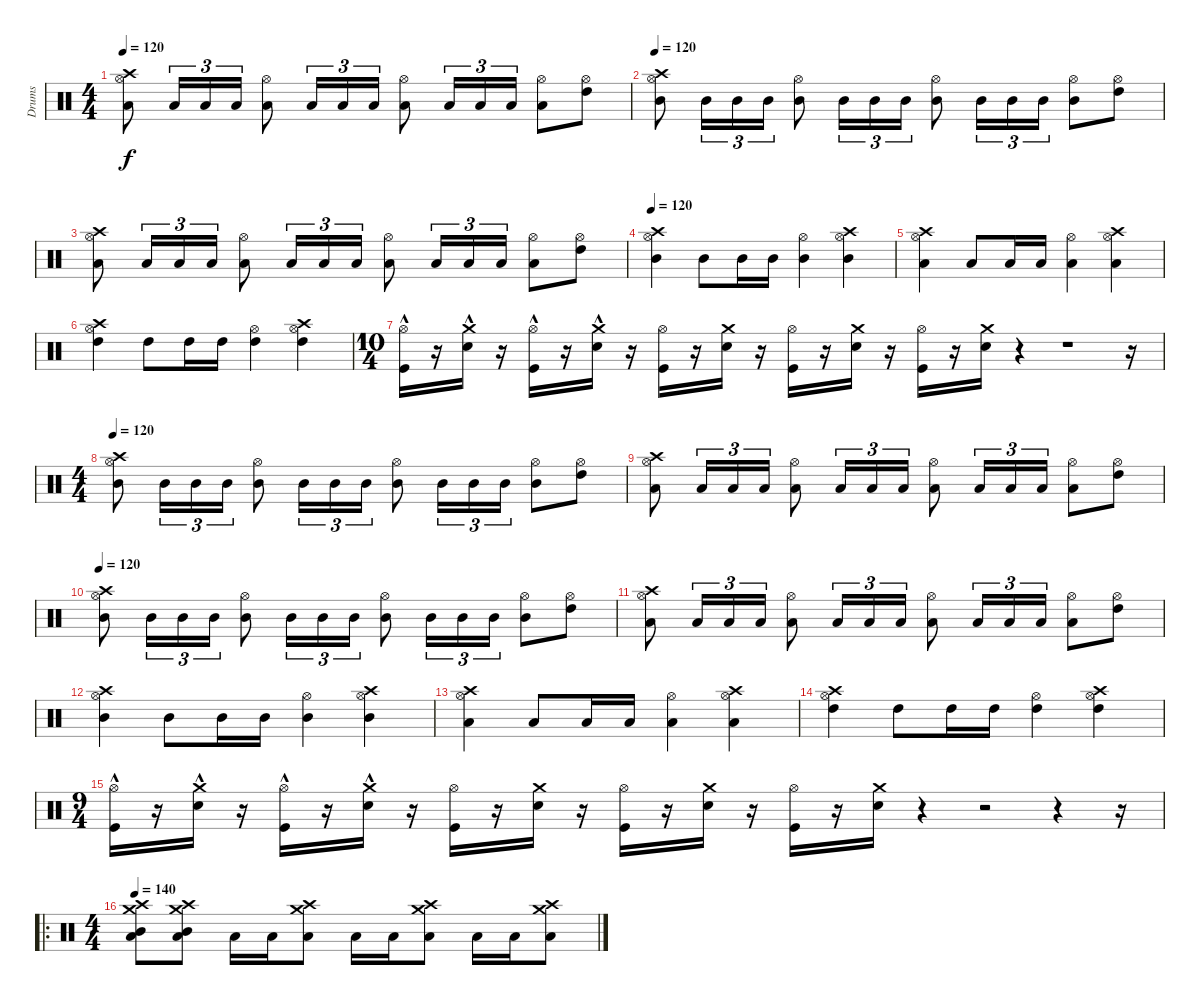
\track ("Drums" "Drums") {instrument percussion}
\staff {score}
\articulation defaults
\ts (4 4)
\tempo 120
\clef neutral
\ks c
("Hi-Hat (open)" "Low Tom (hit)" "Crash high (hit)").8{dy f} "Low Tom (hit)".16{tu (3 2)} "Low Tom (hit)".16{tu (3 2)} "Low Tom (hit)".16{tu (3 2)} ("Hi-Hat (open)" "Low Tom (hit)").8 "Low Tom (hit)".16{tu (3 2)} "Low Tom (hit)".16{tu (3 2)} "Low Tom (hit)".16{tu (3 2)} ("Hi-Hat (open)" "Low Tom (hit)").8 "Low Tom (hit)".16{tu (3 2)} "Low Tom (hit)".16{tu (3 2)} "Low Tom (hit)".16{tu (3 2)} ("Hi-Hat (open)" "Low Tom (hit)").8 ("Hi-Hat (open)" "High Tom (hit)").8 |
\tempo 120
("Hi-Hat (open)" "Mid Tom (hit)" "Crash high (hit)").8 "Mid Tom (hit)".16{tu (3 2)} "Mid Tom (hit)".16{tu (3 2)} "Mid Tom (hit)".16{tu (3 2)} ("Hi-Hat (open)" "Mid Tom (hit)").8 "Mid Tom (hit)".16{tu (3 2)} "Mid Tom (hit)".16{tu (3 2)} "Mid Tom (hit)".16{tu (3 2)} ("Hi-Hat (open)" "Mid Tom (hit)").8 "Mid Tom (hit)".16{tu (3 2)} "Mid Tom (hit)".16{tu (3 2)} "Mid Tom (hit)".16{tu (3 2)} ("Hi-Hat (open)" "Mid Tom (hit)").8 ("Hi-Hat (open)" "High Tom (hit)").8 |
("Hi-Hat (open)" "Low Tom (hit)" "Crash high (hit)").8 "Low Tom (hit)".16{tu (3 2)} "Low Tom (hit)".16{tu (3 2)} "Low Tom (hit)".16{tu (3 2)} ("Hi-Hat (open)" "Low Tom (hit)").8 "Low Tom (hit)".16{tu (3 2)} "Low Tom (hit)".16{tu (3 2)} "Low Tom (hit)".16{tu (3 2)} ("Hi-Hat (open)" "Low Tom (hit)").8 "Low Tom (hit)".16{tu (3 2)} "Low Tom (hit)".16{tu (3 2)} "Low Tom (hit)".16{tu (3 2)} ("Hi-Hat (open)" "Low Tom (hit)").8 ("Hi-Hat (open)" "High Tom (hit)").8 |
\tempo 120
("Hi-Hat (open)" "Mid Tom (hit)" "Crash high (hit)").4 "Mid Tom (hit)".8 "Mid Tom (hit)".16 "Mid Tom (hit)".16 ("Hi-Hat (open)" "Mid Tom (hit)").4 ("Hi-Hat (open)" "Mid Tom (hit)" "Crash high (hit)").4 |
("Hi-Hat (open)" "Low Tom (hit)" "Crash high (hit)").4 "Low Tom (hit)".8 "Low Tom (hit)".16 "Low Tom (hit)".16 ("Hi-Hat (open)" "Low Tom (hit)").4 ("Hi-Hat (open)" "Low Tom (hit)" "Crash high (hit)").4 |
("Hi-Hat (open)" "High Tom (hit)" "Crash high (hit)").4 "High Tom (hit)".8 "High Tom (hit)".16 "High Tom (hit)".16 ("Hi-Hat (open)" "High Tom (hit)").4 ("Hi-Hat (open)" "High Tom (hit)" "Crash high (hit)").4 |
\ts (10 4)
("Hi-Hat (open)" "Kick (hit)"{hac}).16 r.16 ("Crash medium (hit)" "Snare (hit) 2"{hac}).16 r.16 ("Hi-Hat (open)" "Kick (hit)"{hac}).16 r.16 ("Crash medium (hit)" "Snare (hit) 2"{hac}).16 r.16 ("Hi-Hat (open)" "Kick (hit)").16 r.16 ("Crash medium (hit)" "Snare (hit) 2").16 r.16 ("Hi-Hat (open)" "Kick (hit)").16 r.16 ("Crash medium (hit)" "Snare (hit) 2").16 r.16 ("Hi-Hat (open)" "Kick (hit)").16 r.16 ("Crash medium (hit)" "Snare (hit) 2").16 r.4 r.1 r.16 |
\ts (4 4)
\tempo 120
("Hi-Hat (open)" "Mid Tom (hit)" "Crash high (hit)").8 "Mid Tom (hit)".16{tu (3 2)} "Mid Tom (hit)".16{tu (3 2)} "Mid Tom (hit)".16{tu (3 2)} ("Hi-Hat (open)" "Mid Tom (hit)").8 "Mid Tom (hit)".16{tu (3 2)} "Mid Tom (hit)".16{tu (3 2)} "Mid Tom (hit)".16{tu (3 2)} ("Hi-Hat (open)" "Mid Tom (hit)").8 "Mid Tom (hit)".16{tu (3 2)} "Mid Tom (hit)".16{tu (3 2)} "Mid Tom (hit)".16{tu (3 2)} ("Hi-Hat (open)" "Mid Tom (hit)").8 ("Hi-Hat (open)" "High Tom (hit)").8 |
("Hi-Hat (open)" "Low Tom (hit)" "Crash high (hit)").8 "Low Tom (hit)".16{tu (3 2)} "Low Tom (hit)".16{tu (3 2)} "Low Tom (hit)".16{tu (3 2)} ("Hi-Hat (open)" "Low Tom (hit)").8 "Low Tom (hit)".16{tu (3 2)} "Low Tom (hit)".16{tu (3 2)} "Low Tom (hit)".16{tu (3 2)} ("Hi-Hat (open)" "Low Tom (hit)").8 "Low Tom (hit)".16{tu (3 2)} "Low Tom (hit)".16{tu (3 2)} "Low Tom (hit)".16{tu (3 2)} ("Hi-Hat (open)" "Low Tom (hit)").8 ("Hi-Hat (open)" "High Tom (hit)").8 |
\tempo 120
("Hi-Hat (open)" "Mid Tom (hit)" "Crash high (hit)").8 "Mid Tom (hit)".16{tu (3 2)} "Mid Tom (hit)".16{tu (3 2)} "Mid Tom (hit)".16{tu (3 2)} ("Hi-Hat (open)" "Mid Tom (hit)").8 "Mid Tom (hit)".16{tu (3 2)} "Mid Tom (hit)".16{tu (3 2)} "Mid Tom (hit)".16{tu (3 2)} ("Hi-Hat (open)" "Mid Tom (hit)").8 "Mid Tom (hit)".16{tu (3 2)} "Mid Tom (hit)".16{tu (3 2)} "Mid Tom (hit)".16{tu (3 2)} ("Hi-Hat (open)" "Mid Tom (hit)").8 ("Hi-Hat (open)" "High Tom (hit)").8 |
("Hi-Hat (open)" "Low Tom (hit)" "Crash high (hit)").8 "Low Tom (hit)".16{tu (3 2)} "Low Tom (hit)".16{tu (3 2)} "Low Tom (hit)".16{tu (3 2)} ("Hi-Hat (open)" "Low Tom (hit)").8 "Low Tom (hit)".16{tu (3 2)} "Low Tom (hit)".16{tu (3 2)} "Low Tom (hit)".16{tu (3 2)} ("Hi-Hat (open)" "Low Tom (hit)").8 "Low Tom (hit)".16{tu (3 2)} "Low Tom (hit)".16{tu (3 2)} "Low Tom (hit)".16{tu (3 2)} ("Hi-Hat (open)" "Low Tom (hit)").8 ("Hi-Hat (open)" "High Tom (hit)").8 |
("Hi-Hat (open)" "Mid Tom (hit)" "Crash high (hit)").4 "Mid Tom (hit)".8 "Mid Tom (hit)".16 "Mid Tom (hit)".16 ("Hi-Hat (open)" "Mid Tom (hit)").4 ("Hi-Hat (open)" "Mid Tom (hit)" "Crash high (hit)").4 |
("Hi-Hat (open)" "Low Tom (hit)" "Crash high (hit)").4 "Low Tom (hit)".8 "Low Tom (hit)".16 "Low Tom (hit)".16 ("Hi-Hat (open)" "Low Tom (hit)").4 ("Hi-Hat (open)" "Low Tom (hit)" "Crash high (hit)").4 |
("Hi-Hat (open)" "High Tom (hit)" "Crash high (hit)").4 "High Tom (hit)".8 "High Tom (hit)".16 "High Tom (hit)".16 ("Hi-Hat (open)" "High Tom (hit)").4 ("Hi-Hat (open)" "High Tom (hit)" "Crash high (hit)").4 |
\ts (9 4)
("Hi-Hat (open)" "Kick (hit)"{hac}).16 r.16 ("Crash medium (hit)" "Snare (hit) 2"{hac}).16 r.16 ("Hi-Hat (open)" "Kick (hit)"{hac}).16 r.16 ("Crash medium (hit)" "Snare (hit) 2"{hac}).16 r.16 ("Hi-Hat (open)" "Kick (hit)").16 r.16 ("Crash medium (hit)" "Snare (hit) 2").16 r.16 ("Hi-Hat (open)" "Kick (hit)").16 r.16 ("Crash medium (hit)" "Snare (hit) 2").16 r.16 ("Hi-Hat (open)" "Kick (hit)").16 r.16 ("Crash medium (hit)" "Snare (hit) 2").16 r.4 r.2 r.4 r.16 |
\ro
\ts (4 4)
\tempo 140
("Low Tom (hit)" "Mid Tom (hit)" "Crash high (hit)" "Crash medium (hit)").8 ("Low Tom (hit)" "Mid Tom (hit)" "Crash high (hit)" "Crash medium (hit)").8 "Low Tom (hit)".16 "Low Tom (hit)".16 ("Crash high (hit)" "Crash medium (hit)" "Low Tom (hit)").8 "Low Tom (hit)".16 "Low Tom (hit)".16 ("Crash high (hit)" "Crash medium (hit)" "Low Tom (hit)").8 "Low Tom (hit)".16 "Low Tom (hit)".16 ("Crash high (hit)" "Crash medium (hit)" "Low Tom (hit)").8
